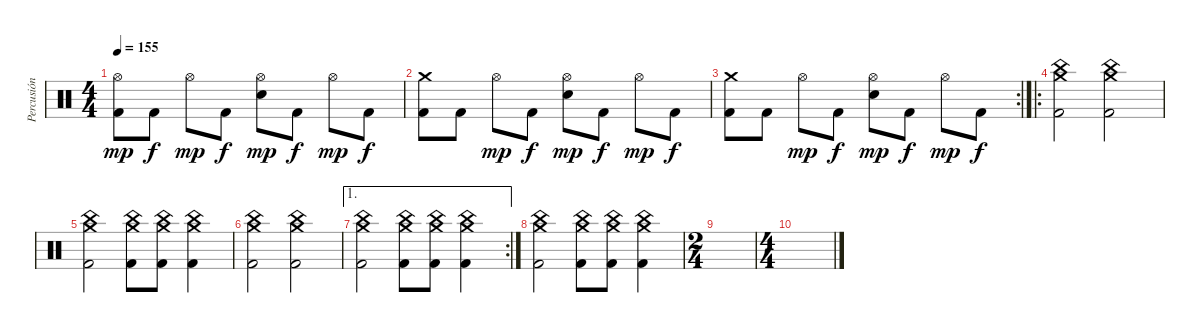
\track ("Percusión" "Percusión") {instrument percussion}
\staff {score}
\articulation defaults
\ts (4 4)
\tempo 155
\clef neutral
\ks c
("Hi-Hat (open)" "Kick (hit) 2").8{dy mp} "Kick (hit) 2".8{dy f} "Hi-Hat (open)".8{dy mp} "Kick (hit) 2".8{dy f} ("Hi-Hat (open)" "Electric Snare (hit)").8{dy mp} "Kick (hit) 2".8{dy f} "Hi-Hat (open)".8{dy mp} "Kick (hit) 2".8{dy f} |
("Crash medium (hit)" "Kick (hit) 2").8 "Kick (hit) 2".8 "Hi-Hat (open)".8{dy mp} "Kick (hit) 2".8{dy f} ("Hi-Hat (open)" "Electric Snare (hit)").8{dy mp} "Kick (hit) 2".8{dy f} "Hi-Hat (open)".8{dy mp} "Kick (hit) 2".8{dy f} |
\rc 2
("Crash medium (hit)" "Kick (hit) 2").8 "Kick (hit) 2".8 "Hi-Hat (open)".8{dy mp} "Kick (hit) 2".8{dy f} ("Hi-Hat (open)" "Electric Snare (hit)").8{dy mp} "Kick (hit) 2".8{dy f} "Hi-Hat (open)".8{dy mp} "Kick (hit) 2".8{dy f} |
\ro
("China (hit)" "Crash medium (hit)" "Kick (hit) 2").2 ("China (hit)" "Crash medium (hit)" "Kick (hit) 2").2 |
("China (hit)" "Crash medium (hit)" "Kick (hit) 2").2 ("China (hit)" "Crash medium (hit)" "Kick (hit) 2").8 ("China (hit)" "Crash medium (hit)" "Kick (hit) 2").8 ("China (hit)" "Crash medium (hit)" "Kick (hit) 2").4 |
("China (hit)" "Crash medium (hit)" "Kick (hit) 2").2 ("China (hit)" "Crash medium (hit)" "Kick (hit) 2").2 |
\ae 1
\rc 2
("China (hit)" "Crash medium (hit)" "Kick (hit) 2").2 ("China (hit)" "Crash medium (hit)" "Kick (hit) 2").8 ("China (hit)" "Crash medium (hit)" "Kick (hit) 2").8 ("China (hit)" "Crash medium (hit)" "Kick (hit) 2").4 |
("China (hit)" "Crash medium (hit)" "Kick (hit) 2").2 ("China (hit)" "Crash medium (hit)" "Kick (hit) 2").8 ("China (hit)" "Crash medium (hit)" "Kick (hit) 2").8 ("China (hit)" "Crash medium (hit)" "Kick (hit) 2").4 |
\ts (2 4)
|
\ts (4 4)
